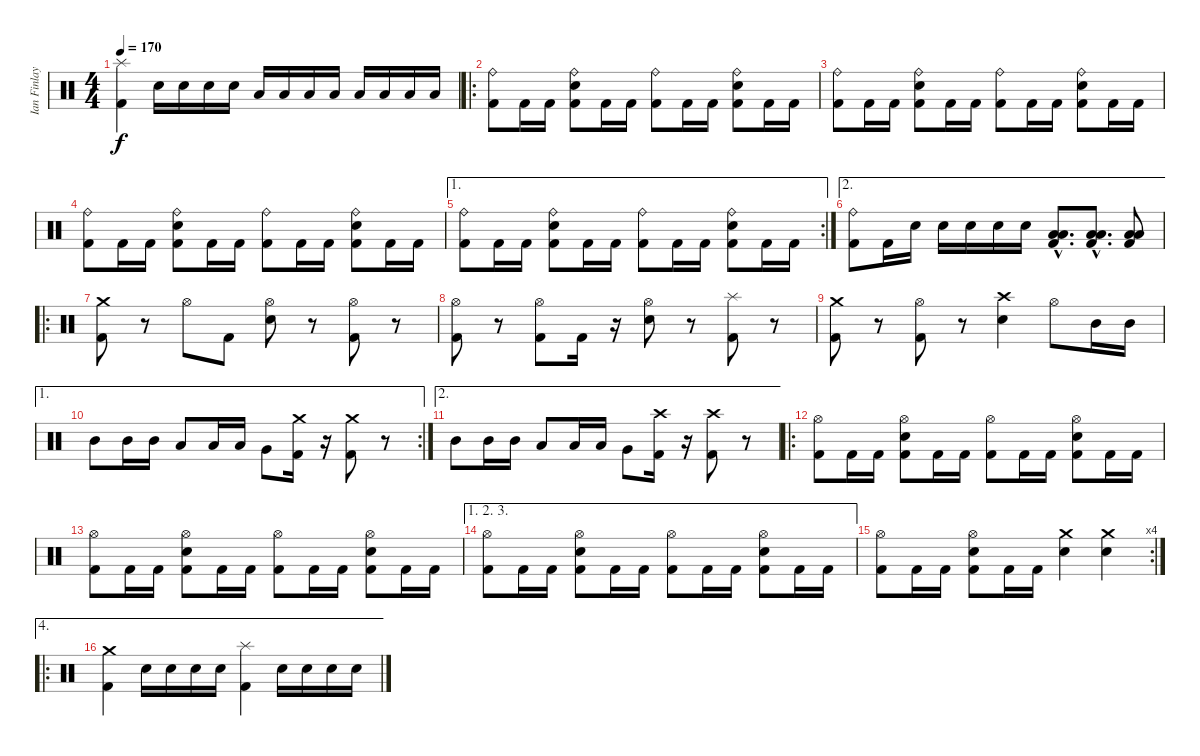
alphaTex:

\track ("Ian Finlay (Drums)" "Ian Finlay") {instrument percussion}
\staff {score}
\articulation defaults
\ts (4 4)
\tempo 170
\clef neutral
\ks c
("Kick (hit) 2" "Splash (hit)").4{dy f} "Snare (hit) 2".16 "Snare (hit) 2".16 "Snare (hit) 2".16 "Snare (hit) 2".16 "Low Tom (hit)".16 "Low Tom (hit)".16 "Low Tom (hit)".16 "Low Tom (hit)".16 "Low Floor Tom (hit)".16 "Low Floor Tom (hit)".16 "Low Floor Tom (hit)".16 "Low Floor Tom (hit)".16 |
\ro
("Kick (hit) 2" "Ride (bell)").8 "Kick (hit) 2".16 "Kick (hit) 2".16 ("Kick (hit) 2" "Snare (hit) 2" "Ride (bell)").8 "Kick (hit) 2".16 "Kick (hit) 2".16 ("Kick (hit) 2" "Ride (bell)").8 "Kick (hit) 2".16 "Kick (hit) 2".16 ("Kick (hit) 2" "Snare (hit) 2" "Ride (bell)").8 "Kick (hit) 2".16 "Kick (hit) 2".16 |
("Kick (hit) 2" "Ride (bell)").8 "Kick (hit) 2".16 "Kick (hit) 2".16 ("Kick (hit) 2" "Snare (hit) 2" "Ride (bell)").8 "Kick (hit) 2".16 "Kick (hit) 2".16 ("Kick (hit) 2" "Ride (bell)").8 "Kick (hit) 2".16 "Kick (hit) 2".16 ("Kick (hit) 2" "Snare (hit) 2" "Ride (bell)").8 "Kick (hit) 2".16 "Kick (hit) 2".16 |
("Kick (hit) 2" "Ride (bell)").8 "Kick (hit) 2".16 "Kick (hit) 2".16 ("Kick (hit) 2" "Snare (hit) 2" "Ride (bell)").8 "Kick (hit) 2".16 "Kick (hit) 2".16 ("Kick (hit) 2" "Ride (bell)").8 "Kick (hit) 2".16 "Kick (hit) 2".16 ("Kick (hit) 2" "Snare (hit) 2" "Ride (bell)").8 "Kick (hit) 2".16 "Kick (hit) 2".16 |
\ae 1
\rc 2
("Kick (hit) 2" "Ride (bell)").8 "Kick (hit) 2".16 "Kick (hit) 2".16 ("Kick (hit) 2" "Snare (hit) 2" "Ride (bell)").8 "Kick (hit) 2".16 "Kick (hit) 2".16 ("Kick (hit) 2" "Ride (bell)").8 "Kick (hit) 2".16 "Kick (hit) 2".16 ("Kick (hit) 2" "Snare (hit) 2" "Ride (bell)").8 "Kick (hit) 2".16 "Kick (hit) 2".16 |
\ae 2
("Kick (hit) 2" "Ride (bell)").8 "Kick (hit) 2".16 "Snare (hit) 2".16 "Snare (hit) 2".16 "Snare (hit) 2".16 "Snare (hit) 2".16 "Snare (hit) 2".16 ("Kick (hit) 2"{hac} "Low Floor Tom (hit)"{hac} "Low Tom (hit)"{hac}).8{d} ("Kick (hit) 2"{hac} "Low Floor Tom (hit)"{hac} "Low Tom (hit)"{hac}).8{d} ("Kick (hit) 2" "Low Floor Tom (hit)" "Low Tom (hit)").8 |
\ro
("Kick (hit) 2" "Crash medium (hit)").8 r.8 "Hi-Hat (open)".8 "Kick (hit) 2".8 ("Snare (hit) 2" "Hi-Hat (open)").8 r.8 ("Kick (hit) 2" "Hi-Hat (open)").8 r.8 |
("Kick (hit) 2" "Hi-Hat (open)").8 r.8 ("Kick (hit) 2" "Hi-Hat (open)").8 "Kick (hit) 2".16 r.16 ("Snare (hit) 2" "Hi-Hat (open)").8 r.8 ("Kick (hit) 2" "Splash (hit)").8 r.8 |
("Kick (hit) 2" "Crash medium (hit)").8 r.8 ("Kick (hit) 2" "Hi-Hat (open)").8 r.8 ("Snare (hit) 2" "Crash high (hit)").4 "Hi-Hat (open)".8 "Mid Tom (hit)".16 "Mid Tom (hit)".16 |
\ae 1
\rc 2 "Mid Tom (hit)".8 "Mid Tom (hit)".16 "Mid Tom (hit)".16 "Low Tom (hit)".8 "Low Tom (hit)".16 "Low Tom (hit)".16 "Very Low Tom (hit)".8
("Kick (hit) 2" "Crash medium (hit)").16 r.16 ("Kick (hit) 2" "Crash medium (hit)").8 r.8 |
\ae 2 "Mid Tom (hit)".8 "Mid Tom (hit)".16 "Mid Tom (hit)".16 "Low Tom (hit)".8 "Low Tom (hit)".16 "Low Tom (hit)".16 "Very Low Tom (hit)".8
("Kick (hit) 2" "Crash high (hit)").16 r.16 ("Kick (hit) 2" "Crash high (hit)").8 r.8 |
\ro
("Kick (hit) 2" "Hi-Hat (open)").8 "Kick (hit) 2".16 "Kick (hit) 2".16 ("Kick (hit) 2" "Snare (hit) 2" "Hi-Hat (open)").8 "Kick (hit) 2".16 "Kick (hit) 2".16 ("Kick (hit) 2" "Hi-Hat (open)").8 "Kick (hit) 2".16 "Kick (hit) 2".16 ("Kick (hit) 2" "Snare (hit) 2" "Hi-Hat (open)").8 "Kick (hit) 2".16 "Kick (hit) 2".16 |
("Kick (hit) 2" "Hi-Hat (open)").8 "Kick (hit) 2".16 "Kick (hit) 2".16 ("Kick (hit) 2" "Snare (hit) 2" "Hi-Hat (open)").8 "Kick (hit) 2".16 "Kick (hit) 2".16 ("Kick (hit) 2" "Hi-Hat (open)").8 "Kick (hit) 2".16 "Kick (hit) 2".16 ("Kick (hit) 2" "Snare (hit) 2" "Hi-Hat (open)").8 "Kick (hit) 2".16 "Kick (hit) 2".16 |
\ae (1 2 3)
("Kick (hit) 2" "Hi-Hat (open)").8 "Kick (hit) 2".16 "Kick (hit) 2".16 ("Kick (hit) 2" "Snare (hit) 2" "Hi-Hat (open)").8 "Kick (hit) 2".16 "Kick (hit) 2".16 ("Kick (hit) 2" "Hi-Hat (open)").8 "Kick (hit) 2".16 "Kick (hit) 2".16 ("Kick (hit) 2" "Snare (hit) 2" "Hi-Hat (open)").8 "Kick (hit) 2".16 "Kick (hit) 2".16 |
\rc 4
("Kick (hit) 2" "Hi-Hat (open)").8 "Kick (hit) 2".16 "Kick (hit) 2".16 ("Kick (hit) 2" "Snare (hit) 2" "Hi-Hat (open)").8 "Kick (hit) 2".16 "Kick (hit) 2".16 ("Snare (hit) 2" "Crash medium (hit)").4 ("Snare (hit) 2" "Crash medium (hit)").4 |
\ae 4
\ro
("Kick (hit) 2" "Crash medium (hit)").4 "Snare (hit) 2".16 "Snare (hit) 2".16 "Snare (hit) 2".16 "Snare (hit) 2".16 ("Kick (hit) 2" "Splash (hit)").4 "Snare (hit) 2".16 "Snare (hit) 2".16 "Snare (hit) 2".16 "Snare (hit) 2".16
